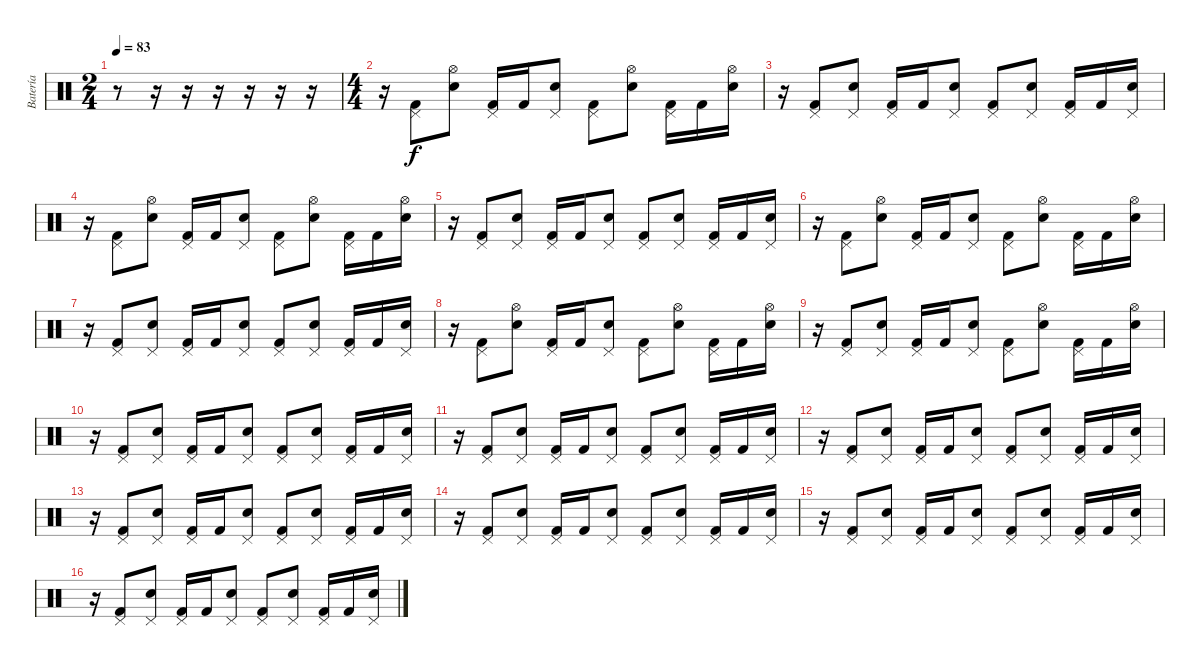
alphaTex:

\track ("Batería" "Batería") {instrument percussion}
\staff {score}
\articulation defaults
\ts (2 4)
\tempo 83
\clef neutral
\ks c
r.8{dy f volume 6} r.16 r.16 r.16 r.16 r.16 r.16 |
\ts (4 4)
r.16{volume 13} ("Pedal Hi-Hat (hit)" "Kick (hit) 2").8 ("Electric Snare (hit)" "Hi-Hat (open)").8 ("Pedal Hi-Hat (hit)" "Kick (hit) 2").16 "Kick (hit) 2".16 ("Electric Snare (hit)" "Pedal Hi-Hat (hit)").8 ("Pedal Hi-Hat (hit)" "Kick (hit) 2").8 ("Electric Snare (hit)" "Hi-Hat (open)").8 ("Pedal Hi-Hat (hit)" "Kick (hit) 2").16 "Kick (hit) 2".16 ("Electric Snare (hit)" "Hi-Hat (open)").16 |
r.16{volume 13} ("Pedal Hi-Hat (hit)" "Kick (hit) 2").8 ("Electric Snare (hit)" "Pedal Hi-Hat (hit)").8 ("Pedal Hi-Hat (hit)" "Kick (hit) 2").16 "Kick (hit) 2".16 ("Electric Snare (hit)" "Pedal Hi-Hat (hit)").8 ("Pedal Hi-Hat (hit)" "Kick (hit) 2").8 ("Electric Snare (hit)" "Pedal Hi-Hat (hit)").8 ("Pedal Hi-Hat (hit)" "Kick (hit) 2").16 "Kick (hit) 2".16 ("Electric Snare (hit)" "Pedal Hi-Hat (hit)").16 |
r.16{volume 13} ("Pedal Hi-Hat (hit)" "Kick (hit) 2").8 ("Electric Snare (hit)" "Hi-Hat (open)").8 ("Pedal Hi-Hat (hit)" "Kick (hit) 2").16 "Kick (hit) 2".16 ("Electric Snare (hit)" "Pedal Hi-Hat (hit)").8 ("Pedal Hi-Hat (hit)" "Kick (hit) 2").8 ("Electric Snare (hit)" "Hi-Hat (open)").8 ("Pedal Hi-Hat (hit)" "Kick (hit) 2").16 "Kick (hit) 2".16 ("Electric Snare (hit)" "Hi-Hat (open)").16 |
r.16{volume 13} ("Pedal Hi-Hat (hit)" "Kick (hit) 2").8 ("Electric Snare (hit)" "Pedal Hi-Hat (hit)").8 ("Pedal Hi-Hat (hit)" "Kick (hit) 2").16 "Kick (hit) 2".16 ("Electric Snare (hit)" "Pedal Hi-Hat (hit)").8 ("Pedal Hi-Hat (hit)" "Kick (hit) 2").8 ("Electric Snare (hit)" "Pedal Hi-Hat (hit)").8 ("Pedal Hi-Hat (hit)" "Kick (hit) 2").16 "Kick (hit) 2".16 ("Electric Snare (hit)" "Pedal Hi-Hat (hit)").16 |
r.16{volume 13} ("Pedal Hi-Hat (hit)" "Kick (hit) 2").8 ("Electric Snare (hit)" "Hi-Hat (open)").8 ("Pedal Hi-Hat (hit)" "Kick (hit) 2").16 "Kick (hit) 2".16 ("Electric Snare (hit)" "Pedal Hi-Hat (hit)").8 ("Pedal Hi-Hat (hit)" "Kick (hit) 2").8 ("Electric Snare (hit)" "Hi-Hat (open)").8 ("Pedal Hi-Hat (hit)" "Kick (hit) 2").16 "Kick (hit) 2".16 ("Electric Snare (hit)" "Hi-Hat (open)").16 |
r.16{volume 13} ("Pedal Hi-Hat (hit)" "Kick (hit) 2").8 ("Electric Snare (hit)" "Pedal Hi-Hat (hit)").8 ("Pedal Hi-Hat (hit)" "Kick (hit) 2").16 "Kick (hit) 2".16 ("Electric Snare (hit)" "Pedal Hi-Hat (hit)").8 ("Pedal Hi-Hat (hit)" "Kick (hit) 2").8 ("Electric Snare (hit)" "Pedal Hi-Hat (hit)").8 ("Pedal Hi-Hat (hit)" "Kick (hit) 2").16 "Kick (hit) 2".16 ("Electric Snare (hit)" "Pedal Hi-Hat (hit)").16 |
r.16{volume 13} ("Pedal Hi-Hat (hit)" "Kick (hit) 2").8 ("Electric Snare (hit)" "Hi-Hat (open)").8 ("Pedal Hi-Hat (hit)" "Kick (hit) 2").16 "Kick (hit) 2".16 ("Electric Snare (hit)" "Pedal Hi-Hat (hit)").8 ("Pedal Hi-Hat (hit)" "Kick (hit) 2").8 ("Electric Snare (hit)" "Hi-Hat (open)").8 ("Pedal Hi-Hat (hit)" "Kick (hit) 2").16 "Kick (hit) 2".16 ("Electric Snare (hit)" "Hi-Hat (open)").16 |
r.16{volume 13} ("Pedal Hi-Hat (hit)" "Kick (hit) 2").8 ("Electric Snare (hit)" "Pedal Hi-Hat (hit)").8 ("Pedal Hi-Hat (hit)" "Kick (hit) 2").16 "Kick (hit) 2".16 ("Electric Snare (hit)" "Pedal Hi-Hat (hit)").8 ("Pedal Hi-Hat (hit)" "Kick (hit) 2").8 ("Electric Snare (hit)" "Hi-Hat (open)").8 ("Pedal Hi-Hat (hit)" "Kick (hit) 2").16 "Kick (hit) 2".16 ("Electric Snare (hit)" "Hi-Hat (open)").16 |
r.16{volume 13} ("Pedal Hi-Hat (hit)" "Kick (hit) 2").8 ("Electric Snare (hit)" "Pedal Hi-Hat (hit)").8 ("Pedal Hi-Hat (hit)" "Kick (hit) 2").16 "Kick (hit) 2".16 ("Electric Snare (hit)" "Pedal Hi-Hat (hit)").8 ("Pedal Hi-Hat (hit)" "Kick (hit) 2").8 ("Electric Snare (hit)" "Pedal Hi-Hat (hit)").8 ("Pedal Hi-Hat (hit)" "Kick (hit) 2").16 "Kick (hit) 2".16 ("Electric Snare (hit)" "Pedal Hi-Hat (hit)").16 |
r.16{volume 13} ("Pedal Hi-Hat (hit)" "Kick (hit) 2").8 ("Electric Snare (hit)" "Pedal Hi-Hat (hit)").8 ("Pedal Hi-Hat (hit)" "Kick (hit) 2").16 "Kick (hit) 2".16 ("Electric Snare (hit)" "Pedal Hi-Hat (hit)").8 ("Pedal Hi-Hat (hit)" "Kick (hit) 2").8 ("Electric Snare (hit)" "Pedal Hi-Hat (hit)").8 ("Pedal Hi-Hat (hit)" "Kick (hit) 2").16 "Kick (hit) 2".16 ("Electric Snare (hit)" "Pedal Hi-Hat (hit)").16 |
r.16{volume 13} ("Pedal Hi-Hat (hit)" "Kick (hit) 2").8 ("Electric Snare (hit)" "Pedal Hi-Hat (hit)").8 ("Pedal Hi-Hat (hit)" "Kick (hit) 2").16 "Kick (hit) 2".16 ("Electric Snare (hit)" "Pedal Hi-Hat (hit)").8 ("Pedal Hi-Hat (hit)" "Kick (hit) 2").8 ("Electric Snare (hit)" "Pedal Hi-Hat (hit)").8 ("Pedal Hi-Hat (hit)" "Kick (hit) 2").16 "Kick (hit) 2".16 ("Electric Snare (hit)" "Pedal Hi-Hat (hit)").16 |
r.16{volume 13} ("Pedal Hi-Hat (hit)" "Kick (hit) 2").8 ("Electric Snare (hit)" "Pedal Hi-Hat (hit)").8 ("Pedal Hi-Hat (hit)" "Kick (hit) 2").16 "Kick (hit) 2".16 ("Electric Snare (hit)" "Pedal Hi-Hat (hit)").8 ("Pedal Hi-Hat (hit)" "Kick (hit) 2").8 ("Electric Snare (hit)" "Pedal Hi-Hat (hit)").8 ("Pedal Hi-Hat (hit)" "Kick (hit) 2").16 "Kick (hit) 2".16 ("Electric Snare (hit)" "Pedal Hi-Hat (hit)").16 |
r.16{volume 13} ("Pedal Hi-Hat (hit)" "Kick (hit) 2").8 ("Electric Snare (hit)" "Pedal Hi-Hat (hit)").8 ("Pedal Hi-Hat (hit)" "Kick (hit) 2").16 "Kick (hit) 2".16 ("Electric Snare (hit)" "Pedal Hi-Hat (hit)").8 ("Pedal Hi-Hat (hit)" "Kick (hit) 2").8 ("Electric Snare (hit)" "Pedal Hi-Hat (hit)").8 ("Pedal Hi-Hat (hit)" "Kick (hit) 2").16 "Kick (hit) 2".16 ("Electric Snare (hit)" "Pedal Hi-Hat (hit)").16 |
r.16{volume 13} ("Pedal Hi-Hat (hit)" "Kick (hit) 2").8 ("Electric Snare (hit)" "Pedal Hi-Hat (hit)").8 ("Pedal Hi-Hat (hit)" "Kick (hit) 2").16 "Kick (hit) 2".16 ("Electric Snare (hit)" "Pedal Hi-Hat (hit)").8 ("Pedal Hi-Hat (hit)" "Kick (hit) 2").8 ("Electric Snare (hit)" "Pedal Hi-Hat (hit)").8 ("Pedal Hi-Hat (hit)" "Kick (hit) 2").16 "Kick (hit) 2".16 ("Electric Snare (hit)" "Pedal Hi-Hat (hit)").16 |
r.16{volume 13} ("Pedal Hi-Hat (hit)" "Kick (hit) 2").8 ("Electric Snare (hit)" "Pedal Hi-Hat (hit)").8 ("Pedal Hi-Hat (hit)" "Kick (hit) 2").16 "Kick (hit) 2".16 ("Electric Snare (hit)" "Pedal Hi-Hat (hit)").8 ("Pedal Hi-Hat (hit)" "Kick (hit) 2").8 ("Electric Snare (hit)" "Pedal Hi-Hat (hit)").8 ("Pedal Hi-Hat (hit)" "Kick (hit) 2").16 "Kick (hit) 2".16 ("Electric Snare (hit)" "Pedal Hi-Hat (hit)").16
